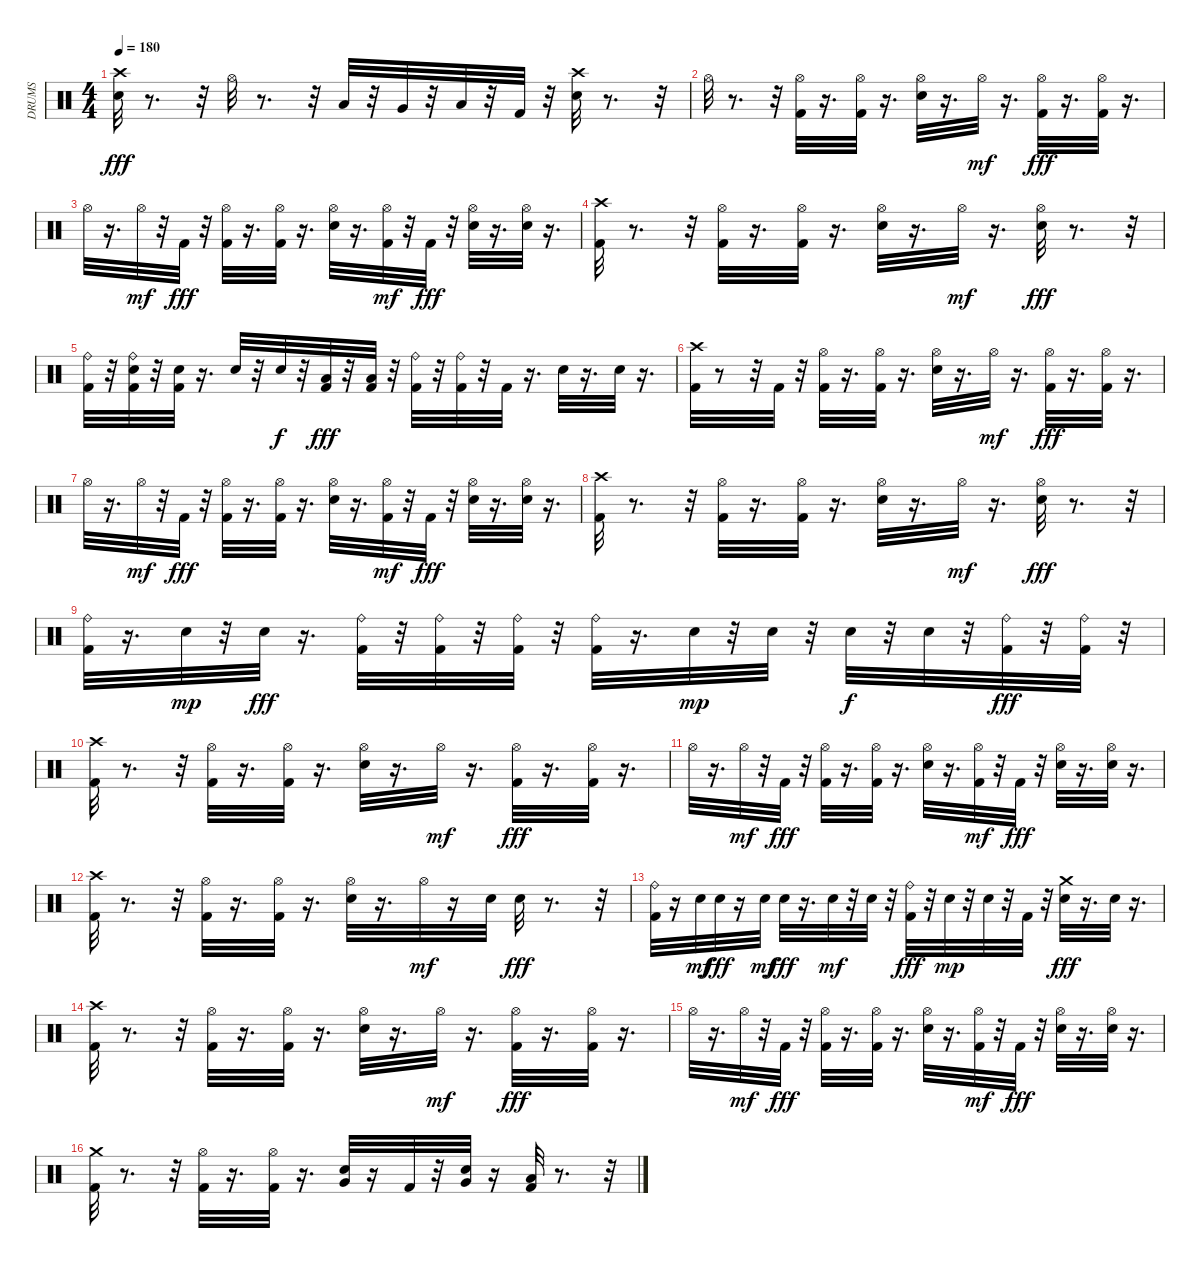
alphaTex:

\track ("DRUMS" "DRUMS") {instrument percussion}
\staff {score}
\articulation defaults
\ts (4 4)
\tempo 180
\clef neutral
\ks c
("Crash high (hit)" "Electric Snare (hit)").32{dy fff} r.8{d} r.32 "Hi-Hat (open)".32 r.8{d} r.32 "Low Tom (hit)".32 r.32 "Very Low Tom (hit)".32 r.32 "Low Floor Tom (hit)".32 r.32 "Kick (hit) 2".32 r.32 ("Crash high (hit)" "Electric Snare (hit)").32 r.8{d} r.32 |
"Hi-Hat (open)".32 r.8{d} r.32 ("Hi-Hat (open)" "Kick (hit) 2").32 r.16{d} ("Hi-Hat (open)" "Kick (hit) 2").32 r.16{d} ("Hi-Hat (open)" "Electric Snare (hit)").32 r.16{d} "Hi-Hat (open)".32{dy mf} r.16{d} ("Hi-Hat (open)" "Kick (hit) 2").32{dy fff} r.16{d} ("Hi-Hat (open)" "Kick (hit) 2").32 r.16{d} |
"Hi-Hat (open)".32 r.16{d} "Hi-Hat (open)".32{dy mf} r.32 "Kick (hit) 2".32{dy fff} r.32 ("Hi-Hat (open)" "Kick (hit) 2").32 r.16{d} ("Hi-Hat (open)" "Kick (hit) 2").32 r.16{d} ("Hi-Hat (open)" "Electric Snare (hit)").32 r.16{d} ("Hi-Hat (open)" "Kick (hit) 2").32{dy mf} r.32 "Kick (hit) 2".32{dy fff} r.32 ("Hi-Hat (open)" "Electric Snare (hit)").32 r.16{d} ("Hi-Hat (open)" "Electric Snare (hit)").32 r.16{d} |
("Crash high (hit)" "Kick (hit) 2").32 r.8{d} r.32 ("Hi-Hat (open)" "Kick (hit) 2").32 r.16{d} ("Hi-Hat (open)" "Kick (hit) 2").32 r.16{d} ("Hi-Hat (open)" "Electric Snare (hit)").32 r.16{d} "Hi-Hat (open)".32{dy mf} r.16{d} ("Hi-Hat (open)" "Electric Snare (hit)").32{dy fff} r.8{d} r.32 |
("Ride (bell)" "Kick (hit) 2").32 r.32 ("Ride (bell)" "Electric Snare (hit)" "Kick (hit) 2").32 r.32 ("Electric Snare (hit)" "Kick (hit) 2").32 r.16{d} "Electric Snare (hit)".32 r.32 "Electric Snare (hit)".32{dy f} r.32 ("Low Floor Tom (hit)" "Kick (hit) 2").32{dy fff} r.32 ("Low Floor Tom (hit)" "Kick (hit) 2").32 r.32 ("Ride (bell)" "Kick (hit) 2").32 r.32 ("Ride (bell)" "Kick (hit) 2").32 r.32 "Kick (hit) 2".32 r.16{d} "Electric Snare (hit)".32 r.16{d} "Electric Snare (hit)".32 r.16{d} |
("Crash high (hit)" "Kick (hit) 2").32 r.8 r.32 "Kick (hit) 2".32 r.32 ("Hi-Hat (open)" "Kick (hit) 2").32 r.16{d} ("Hi-Hat (open)" "Kick (hit) 2").32 r.16{d} ("Hi-Hat (open)" "Electric Snare (hit)").32 r.16{d} "Hi-Hat (open)".32{dy mf} r.16{d} ("Hi-Hat (open)" "Kick (hit) 2").32{dy fff} r.16{d} ("Hi-Hat (open)" "Kick (hit) 2").32 r.16{d} |
"Hi-Hat (open)".32 r.16{d} "Hi-Hat (open)".32{dy mf} r.32 "Kick (hit) 2".32{dy fff} r.32 ("Hi-Hat (open)" "Kick (hit) 2").32 r.16{d} ("Hi-Hat (open)" "Kick (hit) 2").32 r.16{d} ("Hi-Hat (open)" "Electric Snare (hit)").32 r.16{d} ("Hi-Hat (open)" "Kick (hit) 2").32{dy mf} r.32 "Kick (hit) 2".32{dy fff} r.32 ("Hi-Hat (open)" "Electric Snare (hit)").32 r.16{d} ("Hi-Hat (open)" "Electric Snare (hit)").32 r.16{d} |
("Crash high (hit)" "Kick (hit) 2").32 r.8{d} r.32 ("Hi-Hat (open)" "Kick (hit) 2").32 r.16{d} ("Hi-Hat (open)" "Kick (hit) 2").32 r.16{d} ("Hi-Hat (open)" "Electric Snare (hit)").32 r.16{d} "Hi-Hat (open)".32{dy mf} r.16{d} ("Hi-Hat (open)" "Electric Snare (hit)").32{dy fff} r.8{d} r.32 |
("Ride (bell)" "Kick (hit) 2").32 r.16{d} "Electric Snare (hit)".32{dy mp} r.32 "Electric Snare (hit)".32{dy fff} r.16{d} ("Ride (bell)" "Kick (hit) 2").32 r.32 ("Ride (bell)" "Kick (hit) 2").32 r.32 ("Ride (bell)" "Kick (hit) 2").32 r.32 ("Ride (bell)" "Kick (hit) 2").32 r.16{d} "Electric Snare (hit)".32{dy mp} r.32 "Electric Snare (hit)".32 r.32 "Electric Snare (hit)".32{dy f} r.32 "Electric Snare (hit)".32 r.32 ("Ride (bell)" "Kick (hit) 2").32{dy fff} r.32 ("Ride (bell)" "Kick (hit) 2").32 r.32 |
("Crash high (hit)" "Kick (hit) 2").32 r.8{d} r.32 ("Hi-Hat (open)" "Kick (hit) 2").32 r.16{d} ("Hi-Hat (open)" "Kick (hit) 2").32 r.16{d} ("Hi-Hat (open)" "Electric Snare (hit)").32 r.16{d} "Hi-Hat (open)".32{dy mf} r.16{d} ("Hi-Hat (open)" "Kick (hit) 2").32{dy fff} r.16{d} ("Hi-Hat (open)" "Kick (hit) 2").32 r.16{d} |
"Hi-Hat (open)".32 r.16{d} "Hi-Hat (open)".32{dy mf} r.32 "Kick (hit) 2".32{dy fff} r.32 ("Hi-Hat (open)" "Kick (hit) 2").32 r.16{d} ("Hi-Hat (open)" "Kick (hit) 2").32 r.16{d} ("Hi-Hat (open)" "Electric Snare (hit)").32 r.16{d} ("Hi-Hat (open)" "Kick (hit) 2").32{dy mf} r.32 "Kick (hit) 2".32{dy fff} r.32 ("Hi-Hat (open)" "Electric Snare (hit)").32 r.16{d} ("Hi-Hat (open)" "Electric Snare (hit)").32 r.16{d} |
("Crash high (hit)" "Kick (hit) 2").32 r.8{d} r.32 ("Hi-Hat (open)" "Kick (hit) 2").32 r.16{d} ("Hi-Hat (open)" "Kick (hit) 2").32 r.16{d} ("Hi-Hat (open)" "Electric Snare (hit)").32 r.16{d} "Hi-Hat (open)".32{dy mf} r.16 "Electric Snare (hit)".32 "Electric Snare (hit)".32{dy fff} r.8{d} r.32 |
("Ride (bell)" "Kick (hit) 2").32 r.16 "Electric Snare (hit)".32{dy mf} "Electric Snare (hit)".32{dy fff} r.16 "Electric Snare (hit)".32{dy mf} "Electric Snare (hit)".32{dy fff} r.16{d} "Electric Snare (hit)".32{dy mf} r.32 "Electric Snare (hit)".32 r.32 ("Ride (bell)" "Kick (hit) 2").32{dy fff} r.32 "Electric Snare (hit)".32{dy mp} r.32 "Electric Snare (hit)".32 r.32 "Kick (hit) 2".32 r.32 ("Crash medium (hit)" "Electric Snare (hit)").32{dy fff} r.16{d} "Electric Snare (hit)".32 r.16{d} |
("Crash high (hit)" "Kick (hit) 2").32 r.8{d} r.32 ("Hi-Hat (open)" "Kick (hit) 2").32 r.16{d} ("Hi-Hat (open)" "Kick (hit) 2").32 r.16{d} ("Hi-Hat (open)" "Electric Snare (hit)").32 r.16{d} "Hi-Hat (open)".32{dy mf} r.16{d} ("Hi-Hat (open)" "Kick (hit) 2").32{dy fff} r.16{d} ("Hi-Hat (open)" "Kick (hit) 2").32 r.16{d} |
"Hi-Hat (open)".32 r.16{d} "Hi-Hat (open)".32{dy mf} r.32 "Kick (hit) 2".32{dy fff} r.32 ("Hi-Hat (open)" "Kick (hit) 2").32 r.16{d} ("Hi-Hat (open)" "Kick (hit) 2").32 r.16{d} ("Hi-Hat (open)" "Electric Snare (hit)").32 r.16{d} ("Hi-Hat (open)" "Kick (hit) 2").32{dy mf} r.32 "Kick (hit) 2".32{dy fff} r.32 ("Hi-Hat (open)" "Electric Snare (hit)").32 r.16{d} ("Hi-Hat (open)" "Electric Snare (hit)").32 r.16{d} |
("Crash medium (hit)" "Kick (hit) 2").32 r.8{d} r.32 ("Hi-Hat (open)" "Kick (hit) 2").32 r.16{d} ("Hi-Hat (open)" "Kick (hit) 2").32 r.16{d} ("Electric Snare (hit)" "Very Low Tom (hit)").32 r.16 "Kick (hit) 2".32 r.32 ("Electric Snare (hit)" "Very Low Tom (hit)").32 r.16 ("Low Floor Tom (hit)" "Kick (hit) 2").32 r.8{d} r.32
